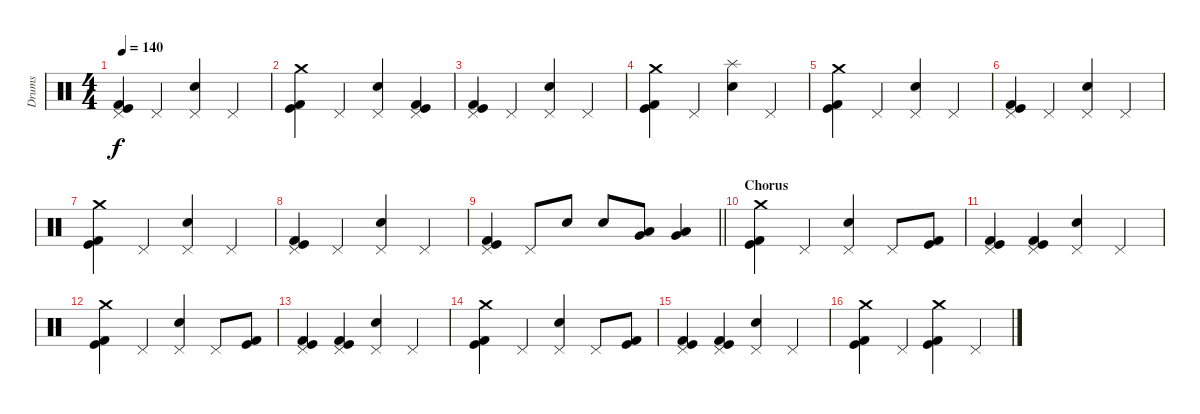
\track ("Drums" "Drums") {instrument percussion}
\staff {score}
\articulation defaults
\ts (4 4)
\tempo 140
\clef neutral
\ks c
("Pedal Hi-Hat (hit)" "Kick (hit) 2" "Kick (hit)").4{dy f} "Pedal Hi-Hat (hit)".4 ("Pedal Hi-Hat (hit)" "Snare (hit) 2").4 "Pedal Hi-Hat (hit)".4 |
("Crash medium (hit)" "Kick (hit) 2" "Kick (hit)").4 "Pedal Hi-Hat (hit)".4 ("Pedal Hi-Hat (hit)" "Snare (hit) 2").4 ("Pedal Hi-Hat (hit)" "Kick (hit) 2" "Kick (hit)").4 |
("Pedal Hi-Hat (hit)" "Kick (hit) 2" "Kick (hit)").4 "Pedal Hi-Hat (hit)".4 ("Pedal Hi-Hat (hit)" "Snare (hit) 2").4 "Pedal Hi-Hat (hit)".4 |
("Crash medium (hit)" "Kick (hit) 2" "Kick (hit)").4 "Pedal Hi-Hat (hit)".4 ("Splash (hit)" "Snare (hit) 2").4 "Pedal Hi-Hat (hit)".4 |
("Crash medium (hit)" "Kick (hit) 2" "Kick (hit)").4 "Pedal Hi-Hat (hit)".4 ("Pedal Hi-Hat (hit)" "Snare (hit) 2").4 "Pedal Hi-Hat (hit)".4 |
("Pedal Hi-Hat (hit)" "Kick (hit) 2" "Kick (hit)").4 "Pedal Hi-Hat (hit)".4 ("Pedal Hi-Hat (hit)" "Snare (hit) 2").4 "Pedal Hi-Hat (hit)".4 |
("Crash medium (hit)" "Kick (hit) 2" "Kick (hit)").4 "Pedal Hi-Hat (hit)".4 ("Pedal Hi-Hat (hit)" "Snare (hit) 2").4 "Pedal Hi-Hat (hit)".4 |
("Pedal Hi-Hat (hit)" "Kick (hit) 2" "Kick (hit)").4 "Pedal Hi-Hat (hit)".4 ("Pedal Hi-Hat (hit)" "Snare (hit) 2").4 "Pedal Hi-Hat (hit)".4 |
\barLineRight lightlight
("Pedal Hi-Hat (hit)" "Kick (hit) 2" "Kick (hit)").4 "Pedal Hi-Hat (hit)".8 "Snare (hit) 2".8 "Snare (hit) 2".8 ("Very Low Tom (hit)" "Low Tom (hit)").8 ("Very Low Tom (hit)" "Low Tom (hit)").4 |
\section ("" "Chorus")
("Kick (hit)" "Crash medium (hit)" "Kick (hit) 2").4 "Pedal Hi-Hat (hit)".4 ("Pedal Hi-Hat (hit)" "Snare (hit) 2").4 "Pedal Hi-Hat (hit)".8 ("Kick (hit)" "Kick (hit) 2").8 |
("Pedal Hi-Hat (hit)" "Kick (hit)" "Kick (hit) 2").4 ("Pedal Hi-Hat (hit)" "Kick (hit)" "Kick (hit) 2").4 ("Pedal Hi-Hat (hit)" "Snare (hit) 2").4 "Pedal Hi-Hat (hit)".4 |
("Crash medium (hit)" "Kick (hit)" "Kick (hit) 2").4 "Pedal Hi-Hat (hit)".4 ("Pedal Hi-Hat (hit)" "Snare (hit) 2").4 "Pedal Hi-Hat (hit)".8 ("Kick (hit)" "Kick (hit) 2").8 |
("Pedal Hi-Hat (hit)" "Kick (hit)" "Kick (hit) 2").4 ("Pedal Hi-Hat (hit)" "Kick (hit)" "Kick (hit) 2").4 ("Pedal Hi-Hat (hit)" "Snare (hit) 2").4 "Pedal Hi-Hat (hit)".4 |
("Crash medium (hit)" "Kick (hit)" "Kick (hit) 2").4 "Pedal Hi-Hat (hit)".4 ("Pedal Hi-Hat (hit)" "Snare (hit) 2").4 "Pedal Hi-Hat (hit)".8 ("Kick (hit)" "Kick (hit) 2").8 |
("Pedal Hi-Hat (hit)" "Kick (hit)" "Kick (hit) 2").4 ("Pedal Hi-Hat (hit)" "Kick (hit)" "Kick (hit) 2").4 ("Pedal Hi-Hat (hit)" "Snare (hit) 2").4 "Pedal Hi-Hat (hit)".4 |
("Crash medium (hit)" "Kick (hit)" "Kick (hit) 2").4 "Pedal Hi-Hat (hit)".4 ("Crash medium (hit)" "Kick (hit)" "Kick (hit) 2").4 "Pedal Hi-Hat (hit)".4
